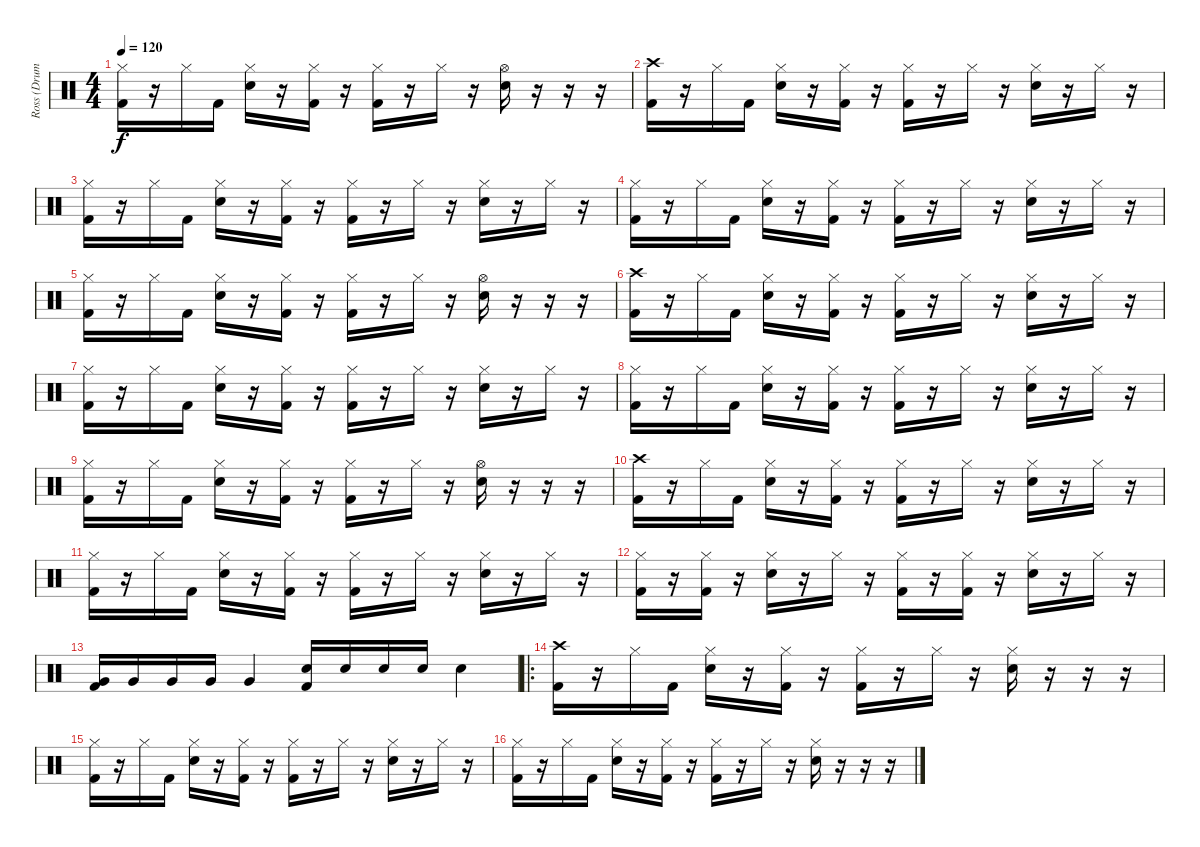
\track ("Ross (Drums)" "Ross (Drum") {instrument percussion}
\staff {score}
\articulation defaults
\ts (4 4)
\tempo 120
\clef neutral
\ks c
("Hi-Hat (closed)" "Kick (hit) 2").16{dy f} r.16 "Hi-Hat (closed)".16 "Kick (hit) 2".16 ("Hi-Hat (closed)" "Electric Snare (hit)").16 r.16 ("Hi-Hat (closed)" "Kick (hit) 2").16 r.16 ("Hi-Hat (closed)" "Kick (hit) 2").16 r.16 "Hi-Hat (closed)".16 r.16 ("Hi-Hat (open)" "Electric Snare (hit)").16 r.16 r.16 r.16 |
("Crash high (hit)" "Kick (hit) 2").16 r.16 "Hi-Hat (closed)".16 "Kick (hit) 2".16 ("Hi-Hat (closed)" "Electric Snare (hit)").16 r.16 ("Hi-Hat (closed)" "Kick (hit) 2").16 r.16 ("Hi-Hat (closed)" "Kick (hit) 2").16 r.16 "Hi-Hat (closed)".16 r.16 ("Hi-Hat (closed)" "Electric Snare (hit)").16 r.16 "Hi-Hat (closed)".16 r.16 |
("Hi-Hat (closed)" "Kick (hit) 2").16 r.16 "Hi-Hat (closed)".16 "Kick (hit) 2".16 ("Hi-Hat (closed)" "Electric Snare (hit)").16 r.16 ("Hi-Hat (closed)" "Kick (hit) 2").16 r.16 ("Hi-Hat (closed)" "Kick (hit) 2").16 r.16 "Hi-Hat (closed)".16 r.16 ("Hi-Hat (closed)" "Electric Snare (hit)").16 r.16 "Hi-Hat (closed)".16 r.16 |
("Hi-Hat (closed)" "Kick (hit) 2").16 r.16 "Hi-Hat (closed)".16 "Kick (hit) 2".16 ("Hi-Hat (closed)" "Electric Snare (hit)").16 r.16 ("Hi-Hat (closed)" "Kick (hit) 2").16 r.16 ("Hi-Hat (closed)" "Kick (hit) 2").16 r.16 "Hi-Hat (closed)".16 r.16 ("Hi-Hat (closed)" "Electric Snare (hit)").16 r.16 "Hi-Hat (closed)".16 r.16 |
("Hi-Hat (closed)" "Kick (hit) 2").16 r.16 "Hi-Hat (closed)".16 "Kick (hit) 2".16 ("Hi-Hat (closed)" "Electric Snare (hit)").16 r.16 ("Hi-Hat (closed)" "Kick (hit) 2").16 r.16 ("Hi-Hat (closed)" "Kick (hit) 2").16 r.16 "Hi-Hat (closed)".16 r.16 ("Hi-Hat (open)" "Electric Snare (hit)").16 r.16 r.16 r.16 |
("Crash high (hit)" "Kick (hit) 2").16 r.16 "Hi-Hat (closed)".16 "Kick (hit) 2".16 ("Hi-Hat (closed)" "Electric Snare (hit)").16 r.16 ("Hi-Hat (closed)" "Kick (hit) 2").16 r.16 ("Hi-Hat (closed)" "Kick (hit) 2").16 r.16 "Hi-Hat (closed)".16 r.16 ("Hi-Hat (closed)" "Electric Snare (hit)").16 r.16 "Hi-Hat (closed)".16 r.16 |
("Hi-Hat (closed)" "Kick (hit) 2").16 r.16 "Hi-Hat (closed)".16 "Kick (hit) 2".16 ("Hi-Hat (closed)" "Electric Snare (hit)").16 r.16 ("Hi-Hat (closed)" "Kick (hit) 2").16 r.16 ("Hi-Hat (closed)" "Kick (hit) 2").16 r.16 "Hi-Hat (closed)".16 r.16 ("Hi-Hat (closed)" "Electric Snare (hit)").16 r.16 "Hi-Hat (closed)".16 r.16 |
("Hi-Hat (closed)" "Kick (hit) 2").16 r.16 "Hi-Hat (closed)".16 "Kick (hit) 2".16 ("Hi-Hat (closed)" "Electric Snare (hit)").16 r.16 ("Hi-Hat (closed)" "Kick (hit) 2").16 r.16 ("Hi-Hat (closed)" "Kick (hit) 2").16 r.16 "Hi-Hat (closed)".16 r.16 ("Hi-Hat (closed)" "Electric Snare (hit)").16 r.16 "Hi-Hat (closed)".16 r.16 |
("Hi-Hat (closed)" "Kick (hit) 2").16 r.16 "Hi-Hat (closed)".16 "Kick (hit) 2".16 ("Hi-Hat (closed)" "Electric Snare (hit)").16 r.16 ("Hi-Hat (closed)" "Kick (hit) 2").16 r.16 ("Hi-Hat (closed)" "Kick (hit) 2").16 r.16 "Hi-Hat (closed)".16 r.16 ("Hi-Hat (open)" "Electric Snare (hit)").16 r.16 r.16 r.16 |
("Crash high (hit)" "Kick (hit) 2").16 r.16 "Hi-Hat (closed)".16 "Kick (hit) 2".16 ("Hi-Hat (closed)" "Electric Snare (hit)").16 r.16 ("Hi-Hat (closed)" "Kick (hit) 2").16 r.16 ("Hi-Hat (closed)" "Kick (hit) 2").16 r.16 "Hi-Hat (closed)".16 r.16 ("Hi-Hat (closed)" "Electric Snare (hit)").16 r.16 "Hi-Hat (closed)".16 r.16 |
("Hi-Hat (closed)" "Kick (hit) 2").16 r.16 "Hi-Hat (closed)".16 "Kick (hit) 2".16 ("Hi-Hat (closed)" "Electric Snare (hit)").16 r.16 ("Hi-Hat (closed)" "Kick (hit) 2").16 r.16 ("Hi-Hat (closed)" "Kick (hit) 2").16 r.16 "Hi-Hat (closed)".16 r.16 ("Hi-Hat (closed)" "Electric Snare (hit)").16 r.16 "Hi-Hat (closed)".16 r.16 |
("Hi-Hat (closed)" "Kick (hit) 2").16 r.16 ("Hi-Hat (closed)" "Kick (hit) 2").16 r.16 ("Hi-Hat (closed)" "Electric Snare (hit)").16 r.16 "Hi-Hat (closed)".16 r.16 ("Hi-Hat (closed)" "Kick (hit) 2").16 r.16 ("Hi-Hat (closed)" "Kick (hit) 2").16 r.16 ("Hi-Hat (closed)" "Electric Snare (hit)").16 r.16 "Hi-Hat (closed)".16 r.16 |
("Very Low Tom (hit)" "Kick (hit) 2").16 "Very Low Tom (hit)".16 "Very Low Tom (hit)".16 "Very Low Tom (hit)".16 "Very Low Tom (hit)".4 ("Electric Snare (hit)" "Kick (hit) 2").16 "Electric Snare (hit)".16 "Electric Snare (hit)".16 "Electric Snare (hit)".16 "Electric Snare (hit)".4 |
\ro
("Crash high (hit)" "Kick (hit) 2").16 r.16 "Hi-Hat (closed)".16 "Kick (hit) 2".16 ("Hi-Hat (closed)" "Electric Snare (hit)").16 r.16 ("Hi-Hat (closed)" "Kick (hit) 2").16 r.16 ("Hi-Hat (closed)" "Kick (hit) 2").16 r.16 "Hi-Hat (closed)".16 r.16 ("Hi-Hat (closed)" "Electric Snare (hit)").16 r.16 r.16 r.16 |
("Hi-Hat (closed)" "Kick (hit) 2").16 r.16 "Hi-Hat (closed)".16 "Kick (hit) 2".16 ("Hi-Hat (closed)" "Electric Snare (hit)").16 r.16 ("Hi-Hat (closed)" "Kick (hit) 2").16 r.16 ("Hi-Hat (closed)" "Kick (hit) 2").16 r.16 "Hi-Hat (closed)".16 r.16 ("Hi-Hat (closed)" "Electric Snare (hit)").16 r.16 "Hi-Hat (closed)".16 r.16 |
("Hi-Hat (closed)" "Kick (hit) 2").16 r.16 "Hi-Hat (closed)".16 "Kick (hit) 2".16 ("Hi-Hat (closed)" "Electric Snare (hit)").16 r.16 ("Hi-Hat (closed)" "Kick (hit) 2").16 r.16 ("Hi-Hat (closed)" "Kick (hit) 2").16 r.16 "Hi-Hat (closed)".16 r.16 ("Hi-Hat (closed)" "Electric Snare (hit)").16 r.16 r.16 r.16
